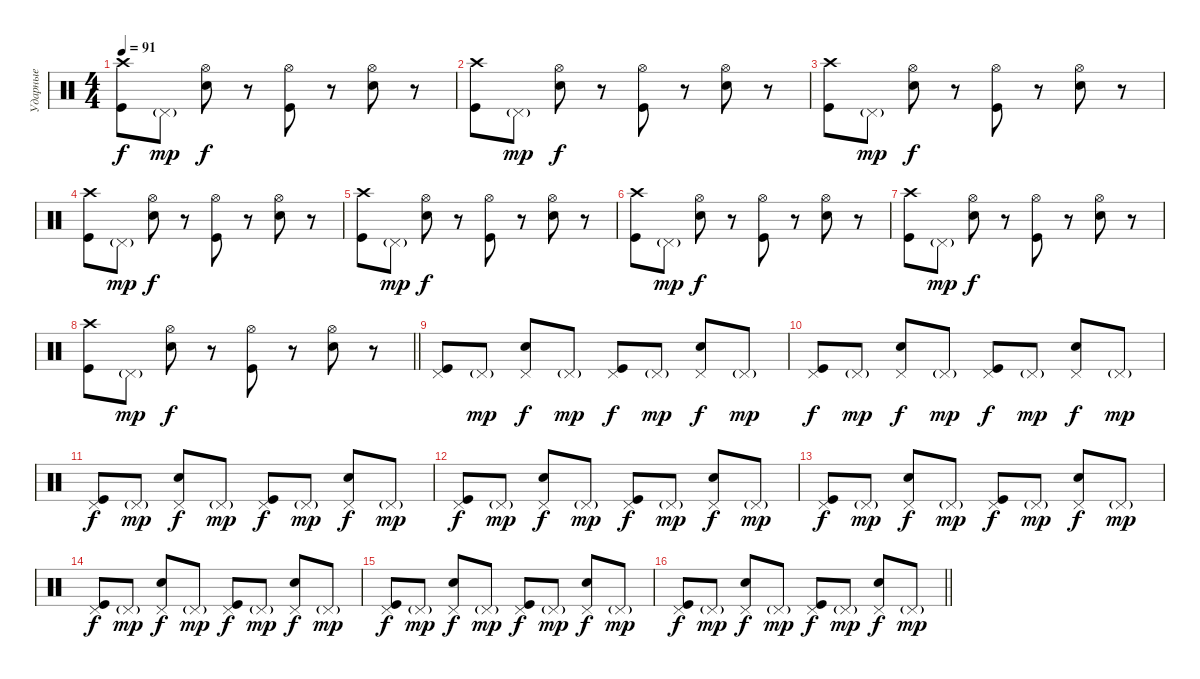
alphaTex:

\track ("Ударные" "Ударные") {instrument percussion}
\staff {score}
\articulation defaults
\ts (4 4)
\tempo 91
\clef neutral
\ks c
("Crash high (hit)" "Kick (hit)").8{dy f} "Pedal Hi-Hat (hit)"{g}.8{dy mp} ("Hi-Hat (open)" "Snare (hit) 2").8{dy f} r.8 ("Hi-Hat (open)" "Kick (hit)").8 r.8 ("Hi-Hat (open)" "Snare (hit) 2").8 r.8 |
("Crash high (hit)" "Kick (hit)").8 "Pedal Hi-Hat (hit)"{g}.8{dy mp} ("Hi-Hat (open)" "Snare (hit) 2").8{dy f} r.8 ("Hi-Hat (open)" "Kick (hit)").8 r.8 ("Hi-Hat (open)" "Snare (hit) 2").8 r.8 |
("Crash high (hit)" "Kick (hit)").8 "Pedal Hi-Hat (hit)"{g}.8{dy mp} ("Hi-Hat (open)" "Snare (hit) 2").8{dy f} r.8 ("Hi-Hat (open)" "Kick (hit)").8 r.8 ("Hi-Hat (open)" "Snare (hit) 2").8 r.8 |
("Crash high (hit)" "Kick (hit)").8 "Pedal Hi-Hat (hit)"{g}.8{dy mp} ("Hi-Hat (open)" "Snare (hit) 2").8{dy f} r.8 ("Hi-Hat (open)" "Kick (hit)").8 r.8 ("Hi-Hat (open)" "Snare (hit) 2").8 r.8 |
("Crash high (hit)" "Kick (hit)").8 "Pedal Hi-Hat (hit)"{g}.8{dy mp} ("Hi-Hat (open)" "Snare (hit) 2").8{dy f} r.8 ("Hi-Hat (open)" "Kick (hit)").8 r.8 ("Hi-Hat (open)" "Snare (hit) 2").8 r.8 |
("Crash high (hit)" "Kick (hit)").8 "Pedal Hi-Hat (hit)"{g}.8{dy mp} ("Hi-Hat (open)" "Snare (hit) 2").8{dy f} r.8 ("Hi-Hat (open)" "Kick (hit)").8 r.8 ("Hi-Hat (open)" "Snare (hit) 2").8 r.8 |
("Crash high (hit)" "Kick (hit)").8 "Pedal Hi-Hat (hit)"{g}.8{dy mp} ("Hi-Hat (open)" "Snare (hit) 2").8{dy f} r.8 ("Hi-Hat (open)" "Kick (hit)").8 r.8 ("Hi-Hat (open)" "Snare (hit) 2").8 r.8 |
\barLineRight lightlight
("Crash high (hit)" "Kick (hit)").8 "Pedal Hi-Hat (hit)"{g}.8{dy mp} ("Hi-Hat (open)" "Snare (hit) 2").8{dy f} r.8 ("Hi-Hat (open)" "Kick (hit)").8 r.8 ("Hi-Hat (open)" "Snare (hit) 2").8 r.8 |
("Pedal Hi-Hat (hit)" "Kick (hit)").8 "Pedal Hi-Hat (hit)"{g}.8{dy mp} ("Pedal Hi-Hat (hit)" "Snare (hit) 2").8{dy f} "Pedal Hi-Hat (hit)"{g}.8{dy mp} ("Pedal Hi-Hat (hit)" "Kick (hit)").8{dy f} "Pedal Hi-Hat (hit)"{g}.8{dy mp} ("Pedal Hi-Hat (hit)" "Snare (hit) 2").8{dy f} "Pedal Hi-Hat (hit)"{g}.8{dy mp} |
("Pedal Hi-Hat (hit)" "Kick (hit)").8{dy f} "Pedal Hi-Hat (hit)"{g}.8{dy mp} ("Pedal Hi-Hat (hit)" "Snare (hit) 2").8{dy f} "Pedal Hi-Hat (hit)"{g}.8{dy mp} ("Pedal Hi-Hat (hit)" "Kick (hit)").8{dy f} "Pedal Hi-Hat (hit)"{g}.8{dy mp} ("Pedal Hi-Hat (hit)" "Snare (hit) 2").8{dy f} "Pedal Hi-Hat (hit)"{g}.8{dy mp} |
("Pedal Hi-Hat (hit)" "Kick (hit)").8{dy f} "Pedal Hi-Hat (hit)"{g}.8{dy mp} ("Pedal Hi-Hat (hit)" "Snare (hit) 2").8{dy f} "Pedal Hi-Hat (hit)"{g}.8{dy mp} ("Pedal Hi-Hat (hit)" "Kick (hit)").8{dy f} "Pedal Hi-Hat (hit)"{g}.8{dy mp} ("Pedal Hi-Hat (hit)" "Snare (hit) 2").8{dy f} "Pedal Hi-Hat (hit)"{g}.8{dy mp} |
("Pedal Hi-Hat (hit)" "Kick (hit)").8{dy f} "Pedal Hi-Hat (hit)"{g}.8{dy mp} ("Pedal Hi-Hat (hit)" "Snare (hit) 2").8{dy f} "Pedal Hi-Hat (hit)"{g}.8{dy mp} ("Pedal Hi-Hat (hit)" "Kick (hit)").8{dy f} "Pedal Hi-Hat (hit)"{g}.8{dy mp} ("Pedal Hi-Hat (hit)" "Snare (hit) 2").8{dy f} "Pedal Hi-Hat (hit)"{g}.8{dy mp} |
("Pedal Hi-Hat (hit)" "Kick (hit)").8{dy f} "Pedal Hi-Hat (hit)"{g}.8{dy mp} ("Pedal Hi-Hat (hit)" "Snare (hit) 2").8{dy f} "Pedal Hi-Hat (hit)"{g}.8{dy mp} ("Pedal Hi-Hat (hit)" "Kick (hit)").8{dy f} "Pedal Hi-Hat (hit)"{g}.8{dy mp} ("Pedal Hi-Hat (hit)" "Snare (hit) 2").8{dy f} "Pedal Hi-Hat (hit)"{g}.8{dy mp} |
("Pedal Hi-Hat (hit)" "Kick (hit)").8{dy f} "Pedal Hi-Hat (hit)"{g}.8{dy mp} ("Pedal Hi-Hat (hit)" "Snare (hit) 2").8{dy f} "Pedal Hi-Hat (hit)"{g}.8{dy mp} ("Pedal Hi-Hat (hit)" "Kick (hit)").8{dy f} "Pedal Hi-Hat (hit)"{g}.8{dy mp} ("Pedal Hi-Hat (hit)" "Snare (hit) 2").8{dy f} "Pedal Hi-Hat (hit)"{g}.8{dy mp} |
("Pedal Hi-Hat (hit)" "Kick (hit)").8{dy f} "Pedal Hi-Hat (hit)"{g}.8{dy mp} ("Pedal Hi-Hat (hit)" "Snare (hit) 2").8{dy f} "Pedal Hi-Hat (hit)"{g}.8{dy mp} ("Pedal Hi-Hat (hit)" "Kick (hit)").8{dy f} "Pedal Hi-Hat (hit)"{g}.8{dy mp} ("Pedal Hi-Hat (hit)" "Snare (hit) 2").8{dy f} "Pedal Hi-Hat (hit)"{g}.8{dy mp} |
\barLineRight lightlight
("Pedal Hi-Hat (hit)" "Kick (hit)").8{dy f} "Pedal Hi-Hat (hit)"{g}.8{dy mp} ("Pedal Hi-Hat (hit)" "Snare (hit) 2").8{dy f} "Pedal Hi-Hat (hit)"{g}.8{dy mp} ("Pedal Hi-Hat (hit)" "Kick (hit)").8{dy f} "Pedal Hi-Hat (hit)"{g}.8{dy mp} ("Pedal Hi-Hat (hit)" "Snare (hit) 2").8{dy f} "Pedal Hi-Hat (hit)"{g}.8{dy mp}
